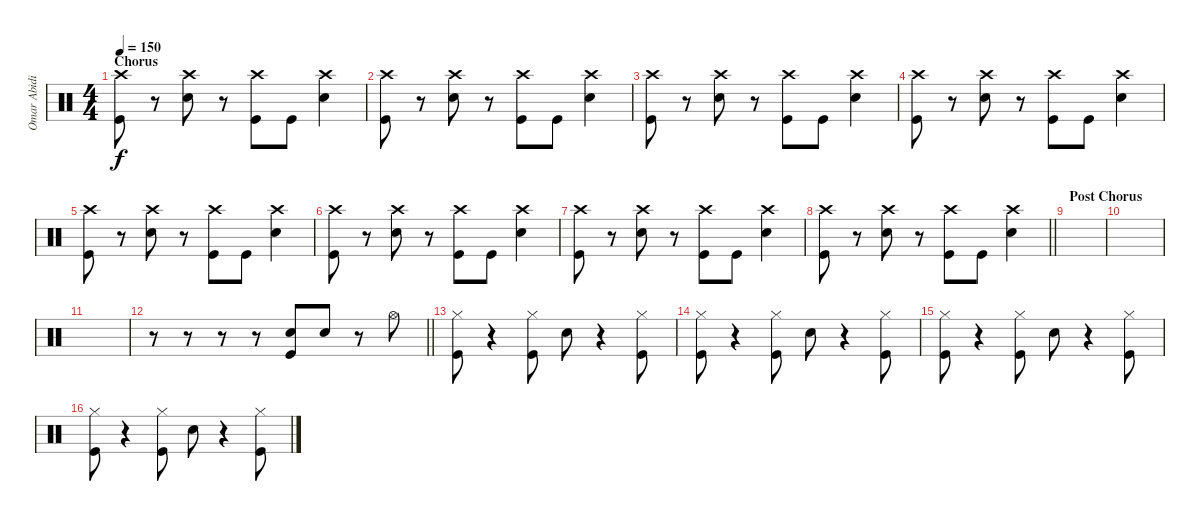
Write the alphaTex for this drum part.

\track ("Omar Abidi" "Omar Abidi") {instrument percussion}
\staff {score}
\articulation defaults
\ts (4 4)
\section ("" "Chorus")
\tempo 150
\clef neutral
\ks c
("Crash high (hit)" "Kick (hit)").8{dy f} r.8 ("Crash high (hit)" "Snare (hit) 2").8 r.8 ("Crash high (hit)" "Kick (hit)").8 "Kick (hit)".8 ("Crash high (hit)" "Snare (hit) 2").4 |
("Crash high (hit)" "Kick (hit)").8 r.8 ("Crash high (hit)" "Snare (hit) 2").8 r.8 ("Crash high (hit)" "Kick (hit)").8 "Kick (hit)".8 ("Crash high (hit)" "Snare (hit) 2").4 |
("Crash high (hit)" "Kick (hit)").8 r.8 ("Crash high (hit)" "Snare (hit) 2").8 r.8 ("Crash high (hit)" "Kick (hit)").8 "Kick (hit)".8 ("Crash high (hit)" "Snare (hit) 2").4 |
("Crash high (hit)" "Kick (hit)").8 r.8 ("Crash high (hit)" "Snare (hit) 2").8 r.8 ("Crash high (hit)" "Kick (hit)").8 "Kick (hit)".8 ("Crash high (hit)" "Snare (hit) 2").4 |
("Crash high (hit)" "Kick (hit)").8 r.8 ("Crash high (hit)" "Snare (hit) 2").8 r.8 ("Crash high (hit)" "Kick (hit)").8 "Kick (hit)".8 ("Crash high (hit)" "Snare (hit) 2").4 |
("Crash high (hit)" "Kick (hit)").8 r.8 ("Crash high (hit)" "Snare (hit) 2").8 r.8 ("Crash high (hit)" "Kick (hit)").8 "Kick (hit)".8 ("Crash high (hit)" "Snare (hit) 2").4 |
("Crash high (hit)" "Kick (hit)").8 r.8 ("Crash high (hit)" "Snare (hit) 2").8 r.8 ("Crash high (hit)" "Kick (hit)").8 "Kick (hit)".8 ("Crash high (hit)" "Snare (hit) 2").4 |
\barLineRight lightlight
("Crash high (hit)" "Kick (hit)").8 r.8 ("Crash high (hit)" "Snare (hit) 2").8 r.8 ("Crash high (hit)" "Kick (hit)").8 "Kick (hit)".8 ("Crash high (hit)" "Snare (hit) 2").4 |
\section ("" "Post Chorus")
|
|
|
\barLineRight lightlight
r.8 r.8 r.8 r.8 ("Snare (hit) 2" "Kick (hit)").8 "Snare (hit) 2".8 r.8 "Hi-Hat (open)".8 |
("Hi-Hat (closed)" "Kick (hit)").8 r.4 ("Hi-Hat (closed)" "Kick (hit)").8 "Snare (hit) 2".8 r.4 ("Hi-Hat (closed)" "Kick (hit)").8 |
("Hi-Hat (closed)" "Kick (hit)").8 r.4 ("Hi-Hat (closed)" "Kick (hit)").8 "Snare (hit) 2".8 r.4 ("Hi-Hat (closed)" "Kick (hit)").8 |
("Hi-Hat (closed)" "Kick (hit)").8 r.4 ("Hi-Hat (closed)" "Kick (hit)").8 "Snare (hit) 2".8 r.4 ("Hi-Hat (closed)" "Kick (hit)").8 |
("Hi-Hat (closed)" "Kick (hit)").8 r.4 ("Hi-Hat (closed)" "Kick (hit)").8 "Snare (hit) 2".8 r.4 ("Hi-Hat (closed)" "Kick (hit)").8
